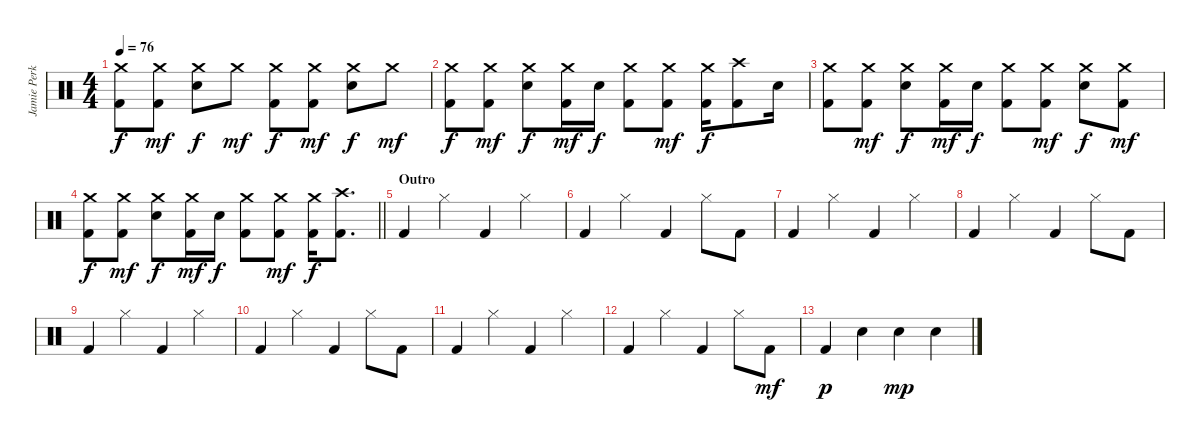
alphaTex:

\track ("Jamie Perkins" "Jamie Perk") {instrument percussion}
\staff {score}
\articulation defaults
\ts (4 4)
\tempo 76
\clef neutral
\ks c
("Crash medium (hit)" "Kick (hit) 2").8{dy f} ("Crash medium (hit)" "Kick (hit) 2").8{dy mf} ("Crash medium (hit)" "Snare (hit) 2").8{dy f} "Crash medium (hit)".8{dy mf} ("Crash medium (hit)" "Kick (hit) 2").8{dy f} ("Crash medium (hit)" "Kick (hit) 2").8{dy mf} ("Crash medium (hit)" "Snare (hit) 2").8{dy f} "Crash medium (hit)".8{dy mf} |
("Crash medium (hit)" "Kick (hit) 2").8{dy f} ("Crash medium (hit)" "Kick (hit) 2").8{dy mf} ("Crash medium (hit)" "Snare (hit) 2").8{dy f} ("Crash medium (hit)" "Kick (hit) 2").16{dy mf} "Snare (hit) 2".16{dy f} ("Crash medium (hit)" "Kick (hit) 2").8 ("Crash medium (hit)" "Kick (hit) 2").8{dy mf} ("Crash medium (hit)" "Kick (hit) 2").16{dy f} ("Crash high (hit)" "Kick (hit) 2").8 "Snare (hit) 2".16 |
("Crash medium (hit)" "Kick (hit) 2").8 ("Crash medium (hit)" "Kick (hit) 2").8{dy mf} ("Crash medium (hit)" "Snare (hit) 2").8{dy f} ("Crash medium (hit)" "Kick (hit) 2").16{dy mf} "Snare (hit) 2".16{dy f} ("Crash medium (hit)" "Kick (hit) 2").8 ("Crash medium (hit)" "Kick (hit) 2").8{dy mf} ("Crash medium (hit)" "Snare (hit) 2").8{dy f} ("Crash medium (hit)" "Kick (hit) 2").8{dy mf} |
\barLineRight lightlight
("Crash medium (hit)" "Kick (hit) 2").8{dy f} ("Crash medium (hit)" "Kick (hit) 2").8{dy mf} ("Crash medium (hit)" "Snare (hit) 2").8{dy f} ("Crash medium (hit)" "Kick (hit) 2").16{dy mf} "Snare (hit) 2".16{dy f} ("Crash medium (hit)" "Kick (hit) 2").8 ("Crash medium (hit)" "Kick (hit) 2").8{dy mf} ("Crash medium (hit)" "Kick (hit) 2").16{dy f} ("Crash high (hit)" "Kick (hit) 2").8{d} |
\section ("" "Outro")
"Kick (hit) 2".4{volume 12} "Hi-Hat (closed)".4 "Kick (hit) 2".4 "Hi-Hat (closed)".4 |
"Kick (hit) 2".4 "Hi-Hat (closed)".4 "Kick (hit) 2".4 "Hi-Hat (closed)".8 "Kick (hit) 2".8 |
"Kick (hit) 2".4 "Hi-Hat (closed)".4 "Kick (hit) 2".4 "Hi-Hat (closed)".4 |
"Kick (hit) 2".4 "Hi-Hat (closed)".4 "Kick (hit) 2".4 "Hi-Hat (closed)".8 "Kick (hit) 2".8 |
"Kick (hit) 2".4{volume 8} "Hi-Hat (closed)".4 "Kick (hit) 2".4 "Hi-Hat (closed)".4 |
"Kick (hit) 2".4 "Hi-Hat (closed)".4 "Kick (hit) 2".4 "Hi-Hat (closed)".8 "Kick (hit) 2".8 |
"Kick (hit) 2".4 "Hi-Hat (closed)".4 "Kick (hit) 2".4 "Hi-Hat (closed)".4 |
"Kick (hit) 2".4 "Hi-Hat (closed)".4 "Kick (hit) 2".4 "Hi-Hat (closed)".8 "Kick (hit) 2".8{dy mf} |
"Kick (hit) 2".4{dy p} "Snare (hit)".4 "Snare (hit)".4{dy mp} "Snare (hit)".4
